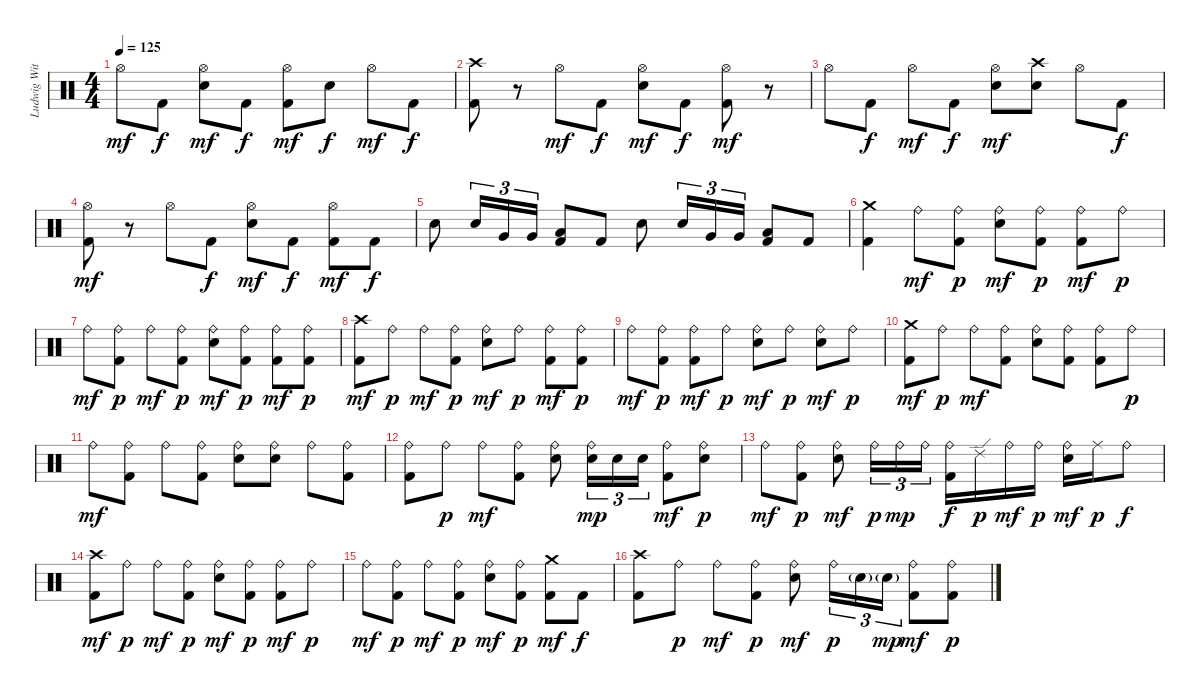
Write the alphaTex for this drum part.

\track ("Ludwig Witt" "Ludwig Wit") {instrument percussion}
\staff {score}
\articulation defaults
\ts (4 4)
\tempo 125
\clef neutral
\ks c "Hi-Hat (open)".8{dy mf} "Kick (hit) 2".8{dy f}
("Hi-Hat (open)" "Electric Snare (hit)").8{dy mf} "Kick (hit) 2".8{dy f} ("Hi-Hat (open)" "Kick (hit) 2").8{dy mf} "Electric Snare (hit)".8{dy f} "Hi-Hat (open)".8{dy mf} "Kick (hit) 2".8{dy f} |
("Crash high (hit)" "Kick (hit) 2").8 r.8 "Hi-Hat (open)".8{dy mf} "Kick (hit) 2".8{dy f} ("Hi-Hat (open)" "Electric Snare (hit)").8{dy mf} "Kick (hit) 2".8{dy f} ("Hi-Hat (open)" "Kick (hit) 2").8{dy mf} r.8 |
"Hi-Hat (open)".8 "Kick (hit) 2".8{dy f} "Hi-Hat (open)".8{dy mf} "Kick (hit) 2".8{dy f} ("Hi-Hat (open)" "Electric Snare (hit)").8{dy mf} ("Crash high (hit)" "Electric Snare (hit)").8 "Hi-Hat (open)".8 "Kick (hit) 2".8{dy f} |
("Hi-Hat (open)" "Kick (hit) 2").8{dy mf} r.8 "Hi-Hat (open)".8 "Kick (hit) 2".8{dy f} ("Hi-Hat (open)" "Electric Snare (hit)").8{dy mf} "Kick (hit) 2".8{dy f} ("Hi-Hat (open)" "Kick (hit) 2").8{dy mf} "Kick (hit) 2".8{dy f} |
"Electric Snare (hit)".8 "Electric Snare (hit)".16{tu (3 2)} "Very Low Tom (hit)".16{tu (3 2)} "Very Low Tom (hit)".16{tu (3 2)} ("Low Floor Tom (hit)" "Kick (hit) 2").8 "Kick (hit) 2".8 "Electric Snare (hit)".8 "Electric Snare (hit)".16{tu (3 2)} "Very Low Tom (hit)".16{tu (3 2)} "Very Low Tom (hit)".16{tu (3 2)} ("Low Floor Tom (hit)" "Kick (hit) 2").8 "Kick (hit) 2".8 |
("Crash medium (hit)" "Kick (hit) 2").4 "Ride (bell)".8{dy mf} ("Ride (bell)" "Kick (hit) 2").8{dy p} ("Ride (bell)" "Electric Snare (hit)").8{dy mf} ("Ride (bell)" "Kick (hit) 2").8{dy p} ("Ride (bell)" "Kick (hit) 2").8{dy mf} "Ride (bell)".8{dy p} |
"Ride (bell)".8{dy mf} ("Ride (bell)" "Kick (hit) 2").8{dy p} "Ride (bell)".8{dy mf} ("Ride (bell)" "Kick (hit) 2").8{dy p} ("Ride (bell)" "Electric Snare (hit)").8{dy mf} ("Ride (bell)" "Kick (hit) 2").8{dy p} ("Ride (bell)" "Kick (hit) 2").8{dy mf} ("Ride (bell)" "Kick (hit) 2").8{dy p} |
("Crash high (hit)" "Kick (hit) 2").8{dy mf} "Ride (bell)".8{dy p} "Ride (bell)".8{dy mf} ("Ride (bell)" "Kick (hit) 2").8{dy p} ("Ride (bell)" "Electric Snare (hit)").8{dy mf} "Ride (bell)".8{dy p} ("Ride (bell)" "Kick (hit) 2").8{dy mf} ("Ride (bell)" "Kick (hit) 2").8{dy p} |
"Ride (bell)".8{dy mf} ("Ride (bell)" "Kick (hit) 2").8{dy p} ("Ride (bell)" "Kick (hit) 2").8{dy mf} "Ride (bell)".8{dy p} ("Ride (bell)" "Electric Snare (hit)").8{dy mf} "Ride (bell)".8{dy p} ("Ride (bell)" "Electric Snare (hit)").8{dy mf} "Ride (bell)".8{dy p} |
("Crash medium (hit)" "Kick (hit) 2").8{dy mf} "Ride (bell)".8{dy p} "Ride (bell)".8{dy mf} ("Ride (bell)" "Kick (hit) 2").8 ("Ride (bell)" "Electric Snare (hit)").8 ("Ride (bell)" "Kick (hit) 2").8 ("Ride (bell)" "Kick (hit) 2").8 "Ride (bell)".8{dy p} |
"Ride (bell)".8{dy mf} ("Ride (bell)" "Kick (hit) 2").8 "Ride (bell)".8 ("Ride (bell)" "Kick (hit) 2").8 ("Ride (bell)" "Electric Snare (hit)").8 ("Ride (bell)" "Electric Snare (hit)").8 "Ride (bell)".8 ("Ride (bell)" "Kick (hit) 2").8 |
("Ride (bell)" "Kick (hit) 2").8 "Ride (bell)".8{dy p} "Ride (bell)".8{dy mf} ("Ride (bell)" "Kick (hit) 2").8 ("Ride (bell)" "Electric Snare (hit)").8 ("Ride (bell)" "Electric Snare (hit)").16{tu (3 2) dy mp} "Electric Snare (hit)".16{tu (3 2)} "Electric Snare (hit)".16{tu (3 2)} ("Ride (bell)" "Kick (hit) 2").8{dy mf} ("Ride (bell)" "Electric Snare (hit)").8{dy p} |
"Ride (bell)".8{dy mf} ("Ride (bell)" "Kick (hit) 2").8{dy p} ("Ride (bell)" "Electric Snare (hit)").8{dy mf} "Ride (bell)".16{tu (3 2) dy p} "Ride (bell)".16{tu (3 2) dy mp} "Ride (bell)".16{tu (3 2)} ("Ride (bell)" "Kick (hit) 2").16{dy f} "Ride (edge) 2".16{dy p} "Ride (bell)".16{dy mf} "Ride (bell)".16{dy p} ("Ride (bell)" "Electric Snare (hit)").16{dy mf} "Ride (middle)".16{dy p} "Ride (bell)".8{dy f} |
("Crash high (hit)" "Kick (hit) 2").8{dy mf} "Ride (bell)".8{dy p} "Ride (bell)".8{dy mf} ("Ride (bell)" "Kick (hit) 2").8{dy p} ("Ride (bell)" "Electric Snare (hit)").8{dy mf} ("Ride (bell)" "Kick (hit) 2").8{dy p} ("Ride (bell)" "Kick (hit) 2").8{dy mf} "Ride (bell)".8{dy p} |
"Ride (bell)".8{dy mf} ("Ride (bell)" "Kick (hit) 2").8{dy p} "Ride (bell)".8{dy mf} ("Ride (bell)" "Kick (hit) 2").8{dy p} ("Ride (bell)" "Electric Snare (hit)").8{dy mf} ("Ride (bell)" "Kick (hit) 2").8{dy p} ("Crash medium (hit)" "Kick (hit) 2").8{dy mf} "Kick (hit) 2".8{dy f} |
("Crash high (hit)" "Kick (hit) 2").8 "Ride (bell)".8{dy p} "Ride (bell)".8{dy mf} ("Ride (bell)" "Kick (hit) 2").8{dy p} ("Ride (bell)" "Electric Snare (hit)").8{dy mf} "Ride (bell)".16{tu (3 2) dy p} "Electric Snare (hit)"{g}.16{tu (3 2)} "Electric Snare (hit)"{g}.16{tu (3 2) dy mp} ("Ride (bell)" "Kick (hit) 2").8{dy mf} ("Ride (bell)" "Kick (hit) 2").8{dy p}
